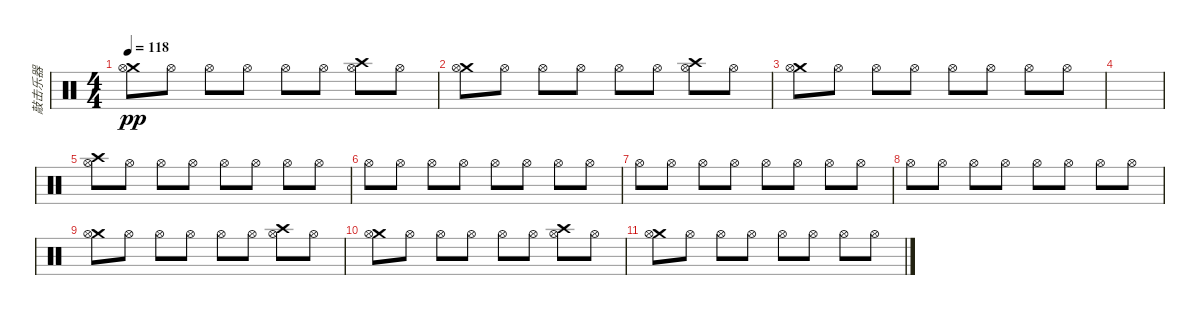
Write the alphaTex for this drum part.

\track ("敲击乐器" "敲击乐器") {instrument percussion}
\staff {score}
\articulation defaults
\ts (4 4)
\tempo 118
\clef neutral
\ks c
("Crash medium (hit)" "Hi-Hat (open)").8{dy pp} "Hi-Hat (open)".8 "Hi-Hat (open)".8 "Hi-Hat (open)".8 "Hi-Hat (open)".8 "Hi-Hat (open)".8 ("Crash high (hit)" "Hi-Hat (open)").8 "Hi-Hat (open)".8 |
("Crash medium (hit)" "Hi-Hat (open)").8 "Hi-Hat (open)".8 "Hi-Hat (open)".8 "Hi-Hat (open)".8 "Hi-Hat (open)".8 "Hi-Hat (open)".8 ("Crash high (hit)" "Hi-Hat (open)").8 "Hi-Hat (open)".8 |
("Crash medium (hit)" "Hi-Hat (open)").8 "Hi-Hat (open)".8 "Hi-Hat (open)".8 "Hi-Hat (open)".8 "Hi-Hat (open)".8 "Hi-Hat (open)".8 "Hi-Hat (open)".8 "Hi-Hat (open)".8 |
|
("Crash high (hit)" "Hi-Hat (open)").8 "Hi-Hat (open)".8 "Hi-Hat (open)".8 "Hi-Hat (open)".8 "Hi-Hat (open)".8 "Hi-Hat (open)".8 "Hi-Hat (open)".8 "Hi-Hat (open)".8 |
"Hi-Hat (open)".8 "Hi-Hat (open)".8 "Hi-Hat (open)".8 "Hi-Hat (open)".8 "Hi-Hat (open)".8 "Hi-Hat (open)".8 "Hi-Hat (open)".8 "Hi-Hat (open)".8 |
"Hi-Hat (open)".8 "Hi-Hat (open)".8 "Hi-Hat (open)".8 "Hi-Hat (open)".8 "Hi-Hat (open)".8 "Hi-Hat (open)".8 "Hi-Hat (open)".8 "Hi-Hat (open)".8 |
"Hi-Hat (open)".8 "Hi-Hat (open)".8 "Hi-Hat (open)".8 "Hi-Hat (open)".8 "Hi-Hat (open)".8 "Hi-Hat (open)".8 "Hi-Hat (open)".8 "Hi-Hat (open)".8 |
("Crash medium (hit)" "Hi-Hat (open)").8 "Hi-Hat (open)".8 "Hi-Hat (open)".8 "Hi-Hat (open)".8 "Hi-Hat (open)".8 "Hi-Hat (open)".8 ("Crash high (hit)" "Hi-Hat (open)").8 "Hi-Hat (open)".8 |
("Crash medium (hit)" "Hi-Hat (open)").8 "Hi-Hat (open)".8 "Hi-Hat (open)".8 "Hi-Hat (open)".8 "Hi-Hat (open)".8 "Hi-Hat (open)".8 ("Crash high (hit)" "Hi-Hat (open)").8 "Hi-Hat (open)".8 |
("Crash medium (hit)" "Hi-Hat (open)").8 "Hi-Hat (open)".8 "Hi-Hat (open)".8 "Hi-Hat (open)".8 "Hi-Hat (open)".8 "Hi-Hat (open)".8 "Hi-Hat (open)".8 "Hi-Hat (open)".8
